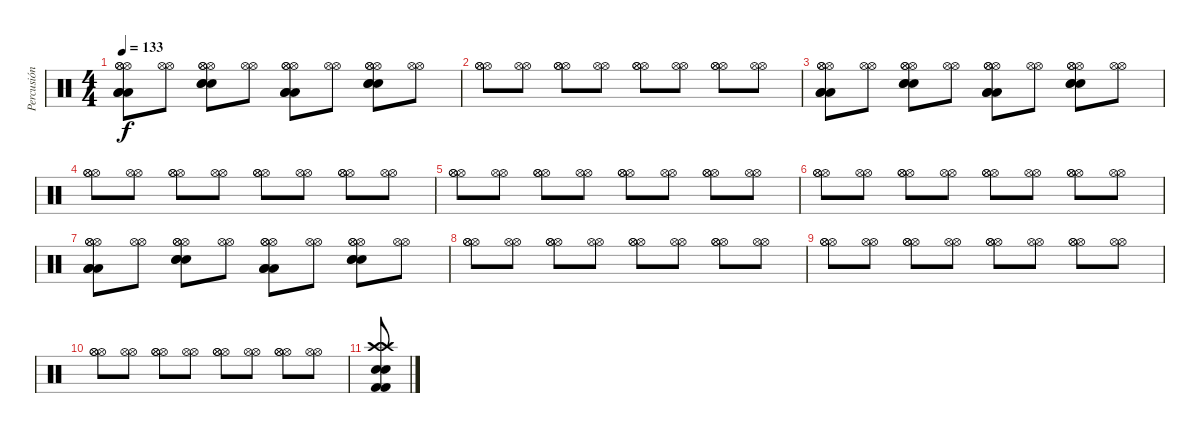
\track ("Percusión" "Percusión") {instrument percussion}
\staff {score}
\articulation defaults
\ts (4 4)
\tempo 133
\clef neutral
\ks c
("Hi-Hat (open)" "Hi-Hat (open)" "Hi-Hat (open)" "Low Tom (hit)" "Low Tom (hit)" "Low Tom (hit)").8{dy f} ("Hi-Hat (open)" "Hi-Hat (open)").8 ("Hi-Hat (open)" "Hi-Hat (open)" "Hi-Hat (open)" "Snare (hit) 2" "Snare (hit) 2" "Snare (hit) 2").8 ("Hi-Hat (open)" "Hi-Hat (open)").8 ("Hi-Hat (open)" "Hi-Hat (open)" "Hi-Hat (open)" "Low Tom (hit)" "Low Tom (hit)" "Low Tom (hit)").8 ("Hi-Hat (open)" "Hi-Hat (open)").8 ("Hi-Hat (open)" "Hi-Hat (open)" "Hi-Hat (open)" "Snare (hit) 2" "Snare (hit) 2" "Snare (hit) 2").8 ("Hi-Hat (open)" "Hi-Hat (open)").8 |
("Hi-Hat (open)" "Hi-Hat (open)" "Hi-Hat (open)").8 ("Hi-Hat (open)" "Hi-Hat (open)").8 ("Hi-Hat (open)" "Hi-Hat (open)" "Hi-Hat (open)").8 ("Hi-Hat (open)" "Hi-Hat (open)").8 ("Hi-Hat (open)" "Hi-Hat (open)" "Hi-Hat (open)").8 ("Hi-Hat (open)" "Hi-Hat (open)").8 ("Hi-Hat (open)" "Hi-Hat (open)" "Hi-Hat (open)").8 ("Hi-Hat (open)" "Hi-Hat (open)").8 |
("Hi-Hat (open)" "Hi-Hat (open)" "Hi-Hat (open)" "Low Tom (hit)" "Low Tom (hit)" "Low Tom (hit)").8 ("Hi-Hat (open)" "Hi-Hat (open)").8 ("Hi-Hat (open)" "Hi-Hat (open)" "Hi-Hat (open)" "Snare (hit) 2" "Snare (hit) 2" "Snare (hit) 2").8 ("Hi-Hat (open)" "Hi-Hat (open)").8 ("Hi-Hat (open)" "Hi-Hat (open)" "Hi-Hat (open)" "Low Tom (hit)" "Low Tom (hit)" "Low Tom (hit)").8 ("Hi-Hat (open)" "Hi-Hat (open)").8 ("Hi-Hat (open)" "Hi-Hat (open)" "Hi-Hat (open)" "Snare (hit) 2" "Snare (hit) 2" "Snare (hit) 2").8 ("Hi-Hat (open)" "Hi-Hat (open)").8 |
("Hi-Hat (open)" "Hi-Hat (open)" "Hi-Hat (open)").8 ("Hi-Hat (open)" "Hi-Hat (open)").8 ("Hi-Hat (open)" "Hi-Hat (open)" "Hi-Hat (open)").8 ("Hi-Hat (open)" "Hi-Hat (open)").8 ("Hi-Hat (open)" "Hi-Hat (open)" "Hi-Hat (open)").8 ("Hi-Hat (open)" "Hi-Hat (open)").8 ("Hi-Hat (open)" "Hi-Hat (open)" "Hi-Hat (open)").8 ("Hi-Hat (open)" "Hi-Hat (open)").8 |
("Hi-Hat (open)" "Hi-Hat (open)" "Hi-Hat (open)").8 ("Hi-Hat (open)" "Hi-Hat (open)").8 ("Hi-Hat (open)" "Hi-Hat (open)" "Hi-Hat (open)").8 ("Hi-Hat (open)" "Hi-Hat (open)").8 ("Hi-Hat (open)" "Hi-Hat (open)" "Hi-Hat (open)").8 ("Hi-Hat (open)" "Hi-Hat (open)").8 ("Hi-Hat (open)" "Hi-Hat (open)" "Hi-Hat (open)").8 ("Hi-Hat (open)" "Hi-Hat (open)").8 |
("Hi-Hat (open)" "Hi-Hat (open)" "Hi-Hat (open)").8 ("Hi-Hat (open)" "Hi-Hat (open)").8 ("Hi-Hat (open)" "Hi-Hat (open)" "Hi-Hat (open)").8 ("Hi-Hat (open)" "Hi-Hat (open)").8 ("Hi-Hat (open)" "Hi-Hat (open)" "Hi-Hat (open)").8 ("Hi-Hat (open)" "Hi-Hat (open)").8 ("Hi-Hat (open)" "Hi-Hat (open)" "Hi-Hat (open)").8 ("Hi-Hat (open)" "Hi-Hat (open)").8 |
("Hi-Hat (open)" "Hi-Hat (open)" "Hi-Hat (open)" "Low Tom (hit)" "Low Tom (hit)" "Low Tom (hit)").8 ("Hi-Hat (open)" "Hi-Hat (open)").8 ("Hi-Hat (open)" "Hi-Hat (open)" "Hi-Hat (open)" "Snare (hit) 2" "Snare (hit) 2" "Snare (hit) 2").8 ("Hi-Hat (open)" "Hi-Hat (open)").8 ("Hi-Hat (open)" "Hi-Hat (open)" "Hi-Hat (open)" "Low Tom (hit)" "Low Tom (hit)" "Low Tom (hit)").8 ("Hi-Hat (open)" "Hi-Hat (open)").8 ("Hi-Hat (open)" "Hi-Hat (open)" "Hi-Hat (open)" "Snare (hit) 2" "Snare (hit) 2" "Snare (hit) 2").8 ("Hi-Hat (open)" "Hi-Hat (open)").8 |
("Hi-Hat (open)" "Hi-Hat (open)" "Hi-Hat (open)").8 ("Hi-Hat (open)" "Hi-Hat (open)").8 ("Hi-Hat (open)" "Hi-Hat (open)" "Hi-Hat (open)").8 ("Hi-Hat (open)" "Hi-Hat (open)").8 ("Hi-Hat (open)" "Hi-Hat (open)" "Hi-Hat (open)").8 ("Hi-Hat (open)" "Hi-Hat (open)").8 ("Hi-Hat (open)" "Hi-Hat (open)" "Hi-Hat (open)").8 ("Hi-Hat (open)" "Hi-Hat (open)").8 |
("Hi-Hat (open)" "Hi-Hat (open)" "Hi-Hat (open)").8 ("Hi-Hat (open)" "Hi-Hat (open)").8 ("Hi-Hat (open)" "Hi-Hat (open)" "Hi-Hat (open)").8 ("Hi-Hat (open)" "Hi-Hat (open)").8 ("Hi-Hat (open)" "Hi-Hat (open)" "Hi-Hat (open)").8 ("Hi-Hat (open)" "Hi-Hat (open)").8 ("Hi-Hat (open)" "Hi-Hat (open)" "Hi-Hat (open)").8 ("Hi-Hat (open)" "Hi-Hat (open)").8 |
("Hi-Hat (open)" "Hi-Hat (open)" "Hi-Hat (open)").8 ("Hi-Hat (open)" "Hi-Hat (open)").8 ("Hi-Hat (open)" "Hi-Hat (open)" "Hi-Hat (open)").8 ("Hi-Hat (open)" "Hi-Hat (open)").8 ("Hi-Hat (open)" "Hi-Hat (open)" "Hi-Hat (open)").8 ("Hi-Hat (open)" "Hi-Hat (open)").8 ("Hi-Hat (open)" "Hi-Hat (open)" "Hi-Hat (open)").8 ("Hi-Hat (open)" "Hi-Hat (open)").8 |
("Crash high (hit)" "Crash high (hit)" "Kick (hit) 2" "Kick (hit) 2" "Snare (hit) 2" "Snare (hit) 2").8
